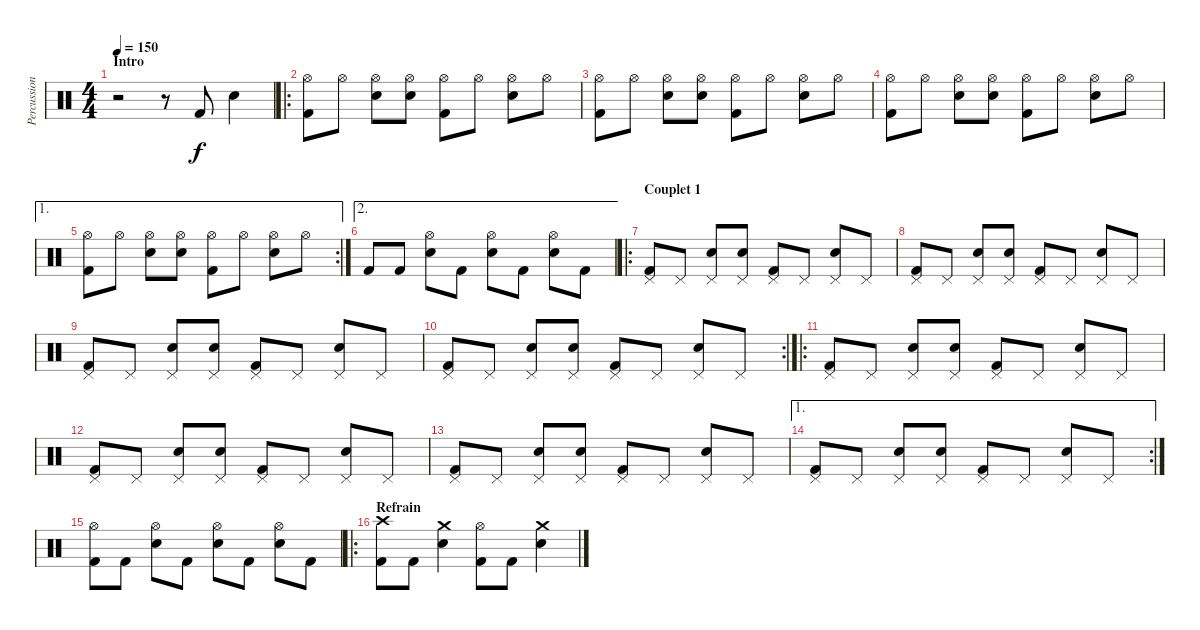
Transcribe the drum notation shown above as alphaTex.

\track ("Percussions" "Percussion") {instrument percussion}
\staff {score}
\articulation defaults
\ts (4 4)
\section ("" "Intro")
\tempo 150
\clef neutral
\ks c
r.2{dy f} r.8 "Kick (hit) 2".8 "Electric Snare (hit)".4 |
\ro
("Hi-Hat (open)" "Kick (hit) 2").8 "Hi-Hat (open)".8 ("Hi-Hat (open)" "Electric Snare (hit)").8 ("Hi-Hat (open)" "Electric Snare (hit)").8 ("Hi-Hat (open)" "Kick (hit) 2").8 "Hi-Hat (open)".8 ("Hi-Hat (open)" "Electric Snare (hit)").8 "Hi-Hat (open)".8 |
("Hi-Hat (open)" "Kick (hit) 2").8 "Hi-Hat (open)".8 ("Hi-Hat (open)" "Electric Snare (hit)").8 ("Hi-Hat (open)" "Electric Snare (hit)").8 ("Hi-Hat (open)" "Kick (hit) 2").8 "Hi-Hat (open)".8 ("Hi-Hat (open)" "Electric Snare (hit)").8 "Hi-Hat (open)".8 |
("Hi-Hat (open)" "Kick (hit) 2").8 "Hi-Hat (open)".8 ("Hi-Hat (open)" "Electric Snare (hit)").8 ("Hi-Hat (open)" "Electric Snare (hit)").8 ("Hi-Hat (open)" "Kick (hit) 2").8 "Hi-Hat (open)".8 ("Hi-Hat (open)" "Electric Snare (hit)").8 "Hi-Hat (open)".8 |
\ae 1
\rc 2
("Hi-Hat (open)" "Kick (hit) 2").8 "Hi-Hat (open)".8 ("Hi-Hat (open)" "Electric Snare (hit)").8 ("Hi-Hat (open)" "Electric Snare (hit)").8 ("Hi-Hat (open)" "Kick (hit) 2").8 "Hi-Hat (open)".8 ("Hi-Hat (open)" "Electric Snare (hit)").8 "Hi-Hat (open)".8 |
\ae 2 "Kick (hit) 2".8 "Kick (hit) 2".8
("Hi-Hat (open)" "Electric Snare (hit)").8 "Kick (hit) 2".8 ("Hi-Hat (open)" "Electric Snare (hit)").8 "Kick (hit) 2".8 ("Hi-Hat (open)" "Electric Snare (hit)").8 "Kick (hit) 2".8 |
\ro
\section ("" "Couplet 1")
("Pedal Hi-Hat (hit)" "Kick (hit) 2").8 "Pedal Hi-Hat (hit)".8 ("Pedal Hi-Hat (hit)" "Electric Snare (hit)").8 ("Pedal Hi-Hat (hit)" "Electric Snare (hit)").8 ("Pedal Hi-Hat (hit)" "Kick (hit) 2").8 "Pedal Hi-Hat (hit)".8 ("Pedal Hi-Hat (hit)" "Electric Snare (hit)").8 "Pedal Hi-Hat (hit)".8 |
("Pedal Hi-Hat (hit)" "Kick (hit) 2").8 "Pedal Hi-Hat (hit)".8 ("Pedal Hi-Hat (hit)" "Electric Snare (hit)").8 ("Pedal Hi-Hat (hit)" "Electric Snare (hit)").8 ("Pedal Hi-Hat (hit)" "Kick (hit) 2").8 "Pedal Hi-Hat (hit)".8 ("Pedal Hi-Hat (hit)" "Electric Snare (hit)").8 "Pedal Hi-Hat (hit)".8 |
("Pedal Hi-Hat (hit)" "Kick (hit) 2").8 "Pedal Hi-Hat (hit)".8 ("Pedal Hi-Hat (hit)" "Electric Snare (hit)").8 ("Pedal Hi-Hat (hit)" "Electric Snare (hit)").8 ("Pedal Hi-Hat (hit)" "Kick (hit) 2").8 "Pedal Hi-Hat (hit)".8 ("Pedal Hi-Hat (hit)" "Electric Snare (hit)").8 "Pedal Hi-Hat (hit)".8 |
\rc 2
("Pedal Hi-Hat (hit)" "Kick (hit) 2").8 "Pedal Hi-Hat (hit)".8 ("Pedal Hi-Hat (hit)" "Electric Snare (hit)").8 ("Pedal Hi-Hat (hit)" "Electric Snare (hit)").8 ("Pedal Hi-Hat (hit)" "Kick (hit) 2").8 "Pedal Hi-Hat (hit)".8 ("Pedal Hi-Hat (hit)" "Electric Snare (hit)").8 "Pedal Hi-Hat (hit)".8 |
\ro
("Pedal Hi-Hat (hit)" "Kick (hit) 2").8 "Pedal Hi-Hat (hit)".8 ("Pedal Hi-Hat (hit)" "Electric Snare (hit)").8 ("Pedal Hi-Hat (hit)" "Electric Snare (hit)").8 ("Pedal Hi-Hat (hit)" "Kick (hit) 2").8 "Pedal Hi-Hat (hit)".8 ("Pedal Hi-Hat (hit)" "Electric Snare (hit)").8 "Pedal Hi-Hat (hit)".8 |
("Pedal Hi-Hat (hit)" "Kick (hit) 2").8 "Pedal Hi-Hat (hit)".8 ("Pedal Hi-Hat (hit)" "Electric Snare (hit)").8 ("Pedal Hi-Hat (hit)" "Electric Snare (hit)").8 ("Pedal Hi-Hat (hit)" "Kick (hit) 2").8 "Pedal Hi-Hat (hit)".8 ("Pedal Hi-Hat (hit)" "Electric Snare (hit)").8 "Pedal Hi-Hat (hit)".8 |
("Pedal Hi-Hat (hit)" "Kick (hit) 2").8 "Pedal Hi-Hat (hit)".8 ("Pedal Hi-Hat (hit)" "Electric Snare (hit)").8 ("Pedal Hi-Hat (hit)" "Electric Snare (hit)").8 ("Pedal Hi-Hat (hit)" "Kick (hit) 2").8 "Pedal Hi-Hat (hit)".8 ("Pedal Hi-Hat (hit)" "Electric Snare (hit)").8 "Pedal Hi-Hat (hit)".8 |
\ae 1
\rc 2
("Pedal Hi-Hat (hit)" "Kick (hit) 2").8 "Pedal Hi-Hat (hit)".8 ("Pedal Hi-Hat (hit)" "Electric Snare (hit)").8 ("Pedal Hi-Hat (hit)" "Electric Snare (hit)").8 ("Pedal Hi-Hat (hit)" "Kick (hit) 2").8 "Pedal Hi-Hat (hit)".8 ("Pedal Hi-Hat (hit)" "Electric Snare (hit)").8 "Pedal Hi-Hat (hit)".8 |
("Hi-Hat (open)" "Kick (hit) 2").8 "Kick (hit) 2".8 ("Hi-Hat (open)" "Electric Snare (hit)").8 "Kick (hit) 2".8 ("Hi-Hat (open)" "Electric Snare (hit)").8 "Kick (hit) 2".8 ("Hi-Hat (open)" "Electric Snare (hit)").8 "Kick (hit) 2".8 |
\ro
\section ("" "Refrain")
("Crash high (hit)" "Kick (hit) 2").8 "Kick (hit) 2".8 ("Crash medium (hit)" "Electric Snare (hit)").4 ("Hi-Hat (open)" "Kick (hit) 2").8 "Kick (hit) 2".8 ("Crash medium (hit)" "Electric Snare (hit)").4
